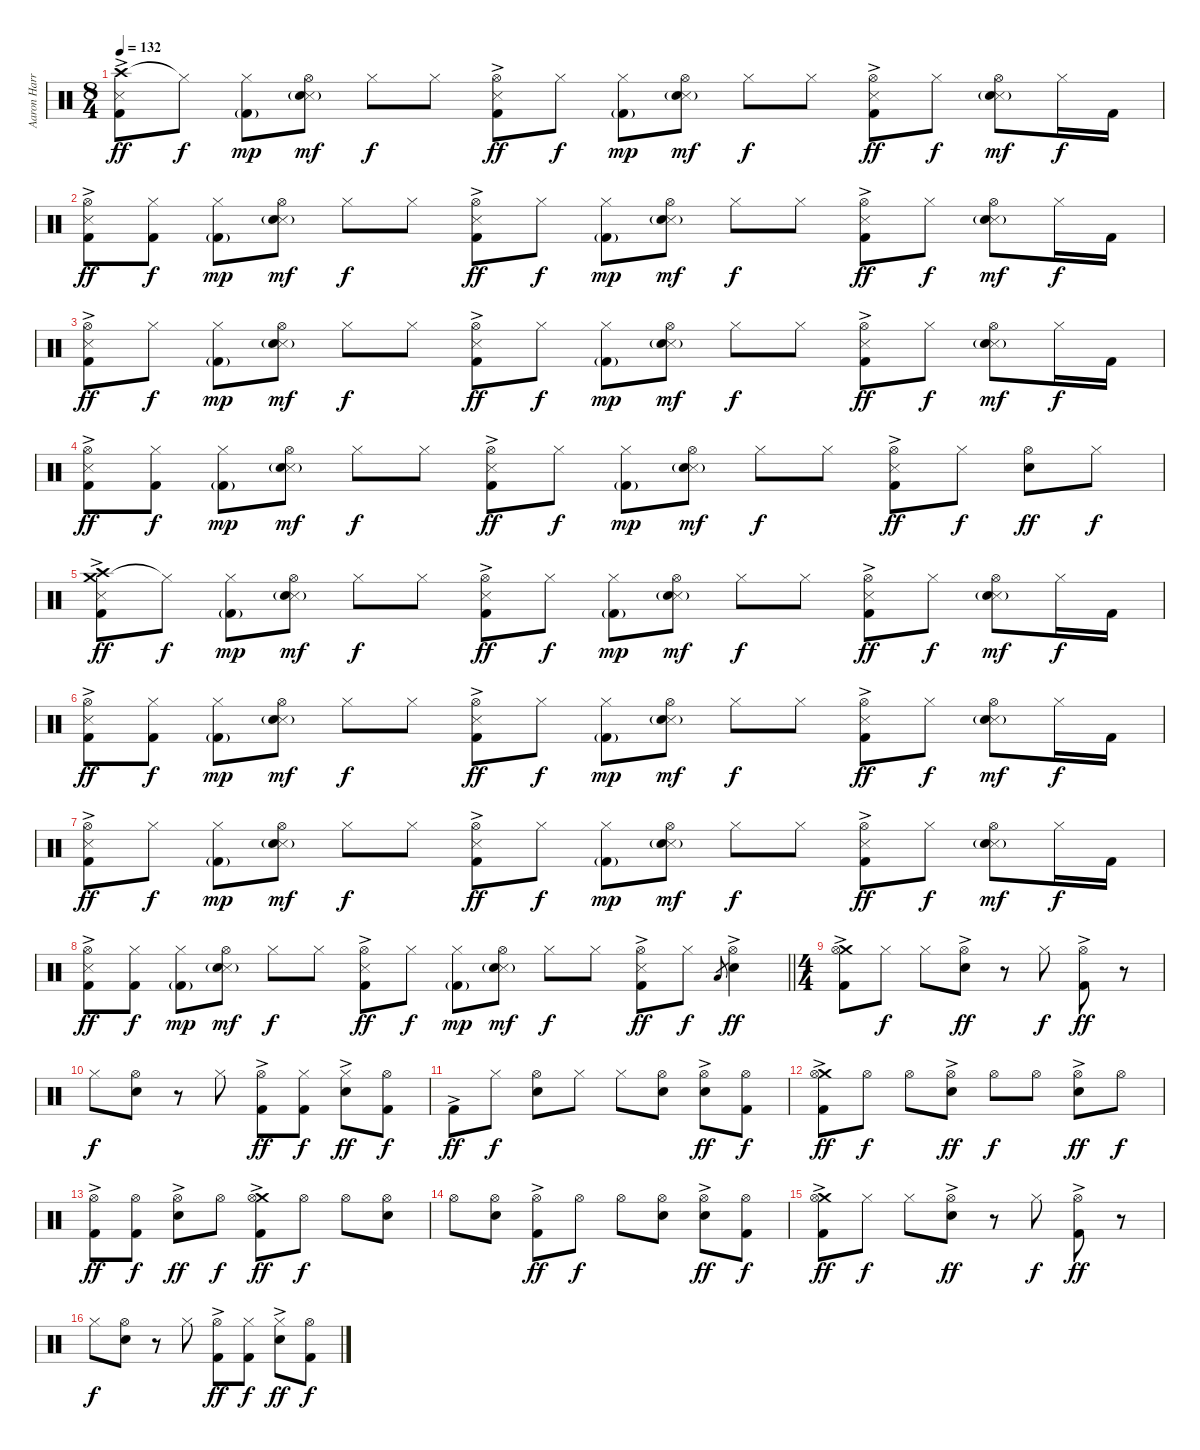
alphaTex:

\track ("Aaron Harris" "Aaron Harr") {instrument percussion}
\staff {score}
\articulation defaults
\ts (8 4)
\tempo 132
\clef neutral
\ks c
("Crash high (hit)" "Snare (side stick) 3" "Kick (hit) 2"{ac}).8{dy ff} "Hi-Hat (closed)"{t}.8{dy f} ("Hi-Hat (closed)" "Kick (hit) 2"{g}).8{dy mp} ("Hi-Hat (open)" "Snare (side stick) 3" "Snare (hit) 2"{g}).8{dy mf} "Hi-Hat (closed)".8{dy f} "Hi-Hat (closed)".8 ("Hi-Hat (open)" "Snare (side stick) 3" "Kick (hit) 2"{ac}).8{dy ff} "Hi-Hat (closed)".8{dy f} ("Hi-Hat (closed)" "Kick (hit) 2"{g}).8{dy mp} ("Hi-Hat (open)" "Snare (side stick) 3" "Snare (hit) 2"{g}).8{dy mf} "Hi-Hat (closed)".8{dy f} "Hi-Hat (closed)".8 ("Hi-Hat (open)" "Snare (side stick) 3" "Kick (hit) 2"{ac}).8{dy ff} "Hi-Hat (closed)".8{dy f} ("Hi-Hat (open)" "Snare (side stick) 3" "Snare (hit) 2"{g}).8{dy mf} "Hi-Hat (closed)".16{dy f} "Kick (hit) 2".16 |
("Hi-Hat (open)" "Snare (side stick) 3" "Kick (hit) 2"{ac}).8{dy ff} ("Hi-Hat (closed)" "Kick (hit) 2").8{dy f} ("Hi-Hat (closed)" "Kick (hit) 2"{g}).8{dy mp} ("Hi-Hat (open)" "Snare (side stick) 3" "Snare (hit) 2"{g}).8{dy mf} "Hi-Hat (closed)".8{dy f} "Hi-Hat (closed)".8 ("Hi-Hat (open)" "Snare (side stick) 3" "Kick (hit) 2"{ac}).8{dy ff} "Hi-Hat (closed)".8{dy f} ("Hi-Hat (closed)" "Kick (hit) 2"{g}).8{dy mp} ("Hi-Hat (open)" "Snare (side stick) 3" "Snare (hit) 2"{g}).8{dy mf} "Hi-Hat (closed)".8{dy f} "Hi-Hat (closed)".8 ("Hi-Hat (open)" "Snare (side stick) 3" "Kick (hit) 2"{ac}).8{dy ff} "Hi-Hat (closed)".8{dy f} ("Hi-Hat (open)" "Snare (side stick) 3" "Snare (hit) 2"{g}).8{dy mf} "Hi-Hat (closed)".16{dy f} "Kick (hit) 2".16 |
("Hi-Hat (open)" "Snare (side stick) 3" "Kick (hit) 2"{ac}).8{dy ff} "Hi-Hat (closed)".8{dy f} ("Hi-Hat (closed)" "Kick (hit) 2"{g}).8{dy mp} ("Hi-Hat (open)" "Snare (side stick) 3" "Snare (hit) 2"{g}).8{dy mf} "Hi-Hat (closed)".8{dy f} "Hi-Hat (closed)".8 ("Hi-Hat (open)" "Snare (side stick) 3" "Kick (hit) 2"{ac}).8{dy ff} "Hi-Hat (closed)".8{dy f} ("Hi-Hat (closed)" "Kick (hit) 2"{g}).8{dy mp} ("Hi-Hat (open)" "Snare (side stick) 3" "Snare (hit) 2"{g}).8{dy mf} "Hi-Hat (closed)".8{dy f} "Hi-Hat (closed)".8 ("Hi-Hat (open)" "Snare (side stick) 3" "Kick (hit) 2"{ac}).8{dy ff} "Hi-Hat (closed)".8{dy f} ("Hi-Hat (open)" "Snare (side stick) 3" "Snare (hit) 2"{g}).8{dy mf} "Hi-Hat (closed)".16{dy f} "Kick (hit) 2".16 |
("Hi-Hat (open)" "Snare (side stick) 3" "Kick (hit) 2"{ac}).8{dy ff} ("Hi-Hat (closed)" "Kick (hit) 2").8{dy f} ("Hi-Hat (closed)" "Kick (hit) 2"{g}).8{dy mp} ("Hi-Hat (open)" "Snare (side stick) 3" "Snare (hit) 2"{g}).8{dy mf} "Hi-Hat (closed)".8{dy f} "Hi-Hat (closed)".8 ("Hi-Hat (open)" "Snare (side stick) 3" "Kick (hit) 2"{ac}).8{dy ff} "Hi-Hat (closed)".8{dy f} ("Hi-Hat (closed)" "Kick (hit) 2"{g}).8{dy mp} ("Hi-Hat (open)" "Snare (side stick) 3" "Snare (hit) 2"{g}).8{dy mf} "Hi-Hat (closed)".8{dy f} "Hi-Hat (closed)".8 ("Hi-Hat (open)" "Snare (side stick) 3" "Kick (hit) 2"{ac}).8{dy ff} "Hi-Hat (closed)".8{dy f} ("Hi-Hat (open)" "Snare (hit) 2").8{dy ff} "Hi-Hat (closed)".8{dy f} |
("Crash medium (hit)" "Crash high (hit)" "Snare (side stick) 3" "Kick (hit) 2"{ac}).8{dy ff} "Hi-Hat (closed)"{t}.8{dy f} ("Hi-Hat (closed)" "Kick (hit) 2"{g}).8{dy mp} ("Hi-Hat (open)" "Snare (side stick) 3" "Snare (hit) 2"{g}).8{dy mf} "Hi-Hat (closed)".8{dy f} "Hi-Hat (closed)".8 ("Hi-Hat (open)" "Snare (side stick) 3" "Kick (hit) 2"{ac}).8{dy ff} "Hi-Hat (closed)".8{dy f} ("Hi-Hat (closed)" "Kick (hit) 2"{g}).8{dy mp} ("Hi-Hat (open)" "Snare (side stick) 3" "Snare (hit) 2"{g}).8{dy mf} "Hi-Hat (closed)".8{dy f} "Hi-Hat (closed)".8 ("Hi-Hat (open)" "Snare (side stick) 3" "Kick (hit) 2"{ac}).8{dy ff} "Hi-Hat (closed)".8{dy f} ("Hi-Hat (open)" "Snare (side stick) 3" "Snare (hit) 2"{g}).8{dy mf} "Hi-Hat (closed)".16{dy f} "Kick (hit) 2".16 |
("Hi-Hat (open)" "Snare (side stick) 3" "Kick (hit) 2"{ac}).8{dy ff} ("Hi-Hat (closed)" "Kick (hit) 2").8{dy f} ("Hi-Hat (closed)" "Kick (hit) 2"{g}).8{dy mp} ("Hi-Hat (open)" "Snare (side stick) 3" "Snare (hit) 2"{g}).8{dy mf} "Hi-Hat (closed)".8{dy f} "Hi-Hat (closed)".8 ("Hi-Hat (open)" "Snare (side stick) 3" "Kick (hit) 2"{ac}).8{dy ff} "Hi-Hat (closed)".8{dy f} ("Hi-Hat (closed)" "Kick (hit) 2"{g}).8{dy mp} ("Hi-Hat (open)" "Snare (side stick) 3" "Snare (hit) 2"{g}).8{dy mf} "Hi-Hat (closed)".8{dy f} "Hi-Hat (closed)".8 ("Hi-Hat (open)" "Snare (side stick) 3" "Kick (hit) 2"{ac}).8{dy ff} "Hi-Hat (closed)".8{dy f} ("Hi-Hat (open)" "Snare (side stick) 3" "Snare (hit) 2"{g}).8{dy mf} "Hi-Hat (closed)".16{dy f} "Kick (hit) 2".16 |
("Hi-Hat (open)" "Snare (side stick) 3" "Kick (hit) 2"{ac}).8{dy ff} "Hi-Hat (closed)".8{dy f} ("Hi-Hat (closed)" "Kick (hit) 2"{g}).8{dy mp} ("Hi-Hat (open)" "Snare (side stick) 3" "Snare (hit) 2"{g}).8{dy mf} "Hi-Hat (closed)".8{dy f} "Hi-Hat (closed)".8 ("Hi-Hat (open)" "Snare (side stick) 3" "Kick (hit) 2"{ac}).8{dy ff} "Hi-Hat (closed)".8{dy f} ("Hi-Hat (closed)" "Kick (hit) 2"{g}).8{dy mp} ("Hi-Hat (open)" "Snare (side stick) 3" "Snare (hit) 2"{g}).8{dy mf} "Hi-Hat (closed)".8{dy f} "Hi-Hat (closed)".8 ("Hi-Hat (open)" "Snare (side stick) 3" "Kick (hit) 2"{ac}).8{dy ff} "Hi-Hat (closed)".8{dy f} ("Hi-Hat (open)" "Snare (side stick) 3" "Snare (hit) 2"{g}).8{dy mf} "Hi-Hat (closed)".16{dy f} "Kick (hit) 2".16 |
\barLineRight lightlight
("Hi-Hat (open)" "Snare (side stick) 3" "Kick (hit) 2"{ac}).8{dy ff} ("Hi-Hat (closed)" "Kick (hit) 2").8{dy f} ("Hi-Hat (closed)" "Kick (hit) 2"{g}).8{dy mp} ("Hi-Hat (open)" "Snare (side stick) 3" "Snare (hit) 2"{g}).8{dy mf} "Hi-Hat (closed)".8{dy f} "Hi-Hat (closed)".8 ("Hi-Hat (open)" "Snare (side stick) 3" "Kick (hit) 2"{ac}).8{dy ff} "Hi-Hat (closed)".8{dy f} ("Hi-Hat (closed)" "Kick (hit) 2"{g}).8{dy mp} ("Hi-Hat (open)" "Snare (side stick) 3" "Snare (hit) 2"{g}).8{dy mf} "Hi-Hat (closed)".8{dy f} "Hi-Hat (closed)".8 ("Hi-Hat (open)" "Snare (side stick) 3" "Kick (hit) 2"{ac}).8{dy ff} "Hi-Hat (closed)".8{dy f} "Low Floor Tom (hit)".8{gr} ("Hi-Hat (open)"{ac} "Snare (hit) 2"{ac}).4{dy ff} |
\ts (4 4)
("Crash medium (hit)" "Hi-Hat (open)" "Kick (hit) 2"{ac}).8 "Hi-Hat (closed)".8{dy f} "Hi-Hat (closed)".8 ("Hi-Hat (open)" "Snare (hit) 2"{ac}).8{dy ff} r.8 "Hi-Hat (closed)".8{dy f} ("Hi-Hat (open)" "Kick (hit) 2"{ac}).8{dy ff} r.8 |
"Hi-Hat (closed)".8{dy f} ("Hi-Hat (open)" "Snare (hit) 2").8 r.8 "Hi-Hat (closed)".8 ("Hi-Hat (open)" "Kick (hit) 2"{ac}).8{dy ff} ("Hi-Hat (closed)" "Kick (hit) 2").8{dy f} ("Hi-Hat (closed)" "Snare (hit) 2"{ac}).8{dy ff} ("Hi-Hat (open)" "Kick (hit) 2").8{dy f} |
"Kick (hit) 2"{ac}.8{dy ff} "Hi-Hat (closed)".8{dy f} ("Hi-Hat (open)" "Snare (hit) 2").8 "Hi-Hat (closed)".8 "Hi-Hat (closed)".8 ("Hi-Hat (open)" "Snare (hit) 2").8 ("Hi-Hat (open)" "Snare (hit) 2"{ac}).8{dy ff} ("Hi-Hat (open)" "Kick (hit) 2").8{dy f} |
("Crash medium (hit)" "Hi-Hat (open)" "Kick (hit) 2"{ac}).8{dy ff} "Hi-Hat (open)".8{dy f} "Hi-Hat (open)".8 ("Hi-Hat (open)" "Snare (hit) 2"{ac}).8{dy ff} "Hi-Hat (open)".8{dy f} "Hi-Hat (open)".8 ("Hi-Hat (open)" "Snare (hit) 2"{ac}).8{dy ff} "Hi-Hat (open)".8{dy f} |
("Hi-Hat (open)" "Kick (hit) 2"{ac}).8{dy ff} ("Hi-Hat (open)" "Kick (hit) 2").8{dy f} ("Hi-Hat (open)" "Snare (hit) 2"{ac}).8{dy ff} "Hi-Hat (open)".8{dy f} ("Crash medium (hit)" "Hi-Hat (open)" "Kick (hit) 2"{ac}).8{dy ff} "Hi-Hat (open)".8{dy f} "Hi-Hat (open)".8 ("Hi-Hat (open)" "Snare (hit) 2").8 |
"Hi-Hat (open)".8 ("Hi-Hat (open)" "Snare (hit) 2").8 ("Hi-Hat (open)" "Kick (hit) 2"{ac}).8{dy ff} "Hi-Hat (open)".8{dy f} "Hi-Hat (open)".8 ("Hi-Hat (open)" "Snare (hit) 2").8 ("Hi-Hat (open)" "Snare (hit) 2"{ac}).8{dy ff} ("Hi-Hat (open)" "Kick (hit) 2").8{dy f} |
("Crash medium (hit)" "Hi-Hat (open)" "Kick (hit) 2"{ac}).8{dy ff} "Hi-Hat (closed)".8{dy f} "Hi-Hat (closed)".8 ("Hi-Hat (open)" "Snare (hit) 2"{ac}).8{dy ff} r.8 "Hi-Hat (closed)".8{dy f} ("Hi-Hat (open)" "Kick (hit) 2"{ac}).8{dy ff} r.8 |
"Hi-Hat (closed)".8{dy f} ("Hi-Hat (open)" "Snare (hit) 2").8 r.8 "Hi-Hat (closed)".8 ("Hi-Hat (open)" "Kick (hit) 2"{ac}).8{dy ff} ("Hi-Hat (closed)" "Kick (hit) 2").8{dy f} ("Hi-Hat (closed)" "Snare (hit) 2"{ac}).8{dy ff} ("Hi-Hat (open)" "Kick (hit) 2").8{dy f}
